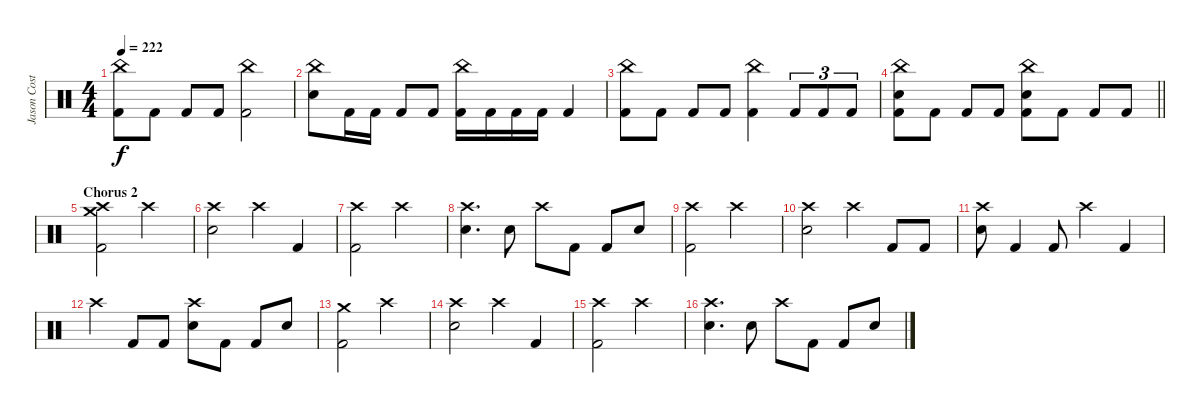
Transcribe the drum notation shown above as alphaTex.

\track ("Jason Costa" "Jason Cost") {instrument percussion}
\staff {score}
\articulation defaults
\ts (4 4)
\tempo 222
\clef neutral
\ks c
("China (hit)" "Kick (hit) 2").8{dy f} "Kick (hit) 2".8 "Kick (hit) 2".8 "Kick (hit) 2".8 ("China (hit)" "Kick (hit) 2").2 |
("China (hit)" "Electric Snare (hit)").8 "Kick (hit) 2".16 "Kick (hit) 2".16 "Kick (hit) 2".8 "Kick (hit) 2".8 ("China (hit)" "Kick (hit) 2").16 "Kick (hit) 2".16 "Kick (hit) 2".16 "Kick (hit) 2".16 "Kick (hit) 2".4 |
("China (hit)" "Kick (hit) 2").8 "Kick (hit) 2".8 "Kick (hit) 2".8 "Kick (hit) 2".8 ("China (hit)" "Kick (hit) 2").4 "Kick (hit) 2".8{tu (3 2)} "Kick (hit) 2".8{tu (3 2)} "Kick (hit) 2".8{tu (3 2)} |
\barLineRight lightlight
("China (hit)" "Electric Snare (hit)" "Kick (hit) 2").8 "Kick (hit) 2".8 "Kick (hit) 2".8 "Kick (hit) 2".8 ("China (hit)" "Electric Snare (hit)" "Kick (hit) 2").8 "Kick (hit) 2".8 "Kick (hit) 2".8 "Kick (hit) 2".8 |
\section ("" "Chorus 2")
("Crash high (hit)" "Crash medium (hit)" "Kick (hit) 2").2 "Crash high (hit)".2 |
("Crash high (hit)" "Electric Snare (hit)").2 "Crash high (hit)".4 "Kick (hit) 2".4 |
("Crash high (hit)" "Kick (hit) 2").2 "Crash high (hit)".2 |
("Crash high (hit)" "Electric Snare (hit)").4{d} "Electric Snare (hit)".8 "Crash high (hit)".8 "Kick (hit) 2".8 "Kick (hit) 2".8 "Electric Snare (hit)".8 |
("Crash high (hit)" "Kick (hit) 2").2 "Crash high (hit)".2 |
("Crash high (hit)" "Electric Snare (hit)").2 "Crash high (hit)".4 "Kick (hit) 2".8 "Kick (hit) 2".8 |
("Crash high (hit)" "Electric Snare (hit)").8 "Kick (hit) 2".4 "Kick (hit) 2".8 "Crash high (hit)".4 "Kick (hit) 2".4 |
"Crash high (hit)".4 "Kick (hit) 2".8 "Kick (hit) 2".8 ("Crash high (hit)" "Electric Snare (hit)").8 "Kick (hit) 2".8 "Kick (hit) 2".8 "Electric Snare (hit)".8 |
("Crash medium (hit)" "Kick (hit) 2").2 "Crash high (hit)".2 |
("Crash high (hit)" "Electric Snare (hit)").2 "Crash high (hit)".4 "Kick (hit) 2".4 |
("Crash high (hit)" "Kick (hit) 2").2 "Crash high (hit)".2 |
("Crash high (hit)" "Electric Snare (hit)").4{d} "Electric Snare (hit)".8 "Crash high (hit)".8 "Kick (hit) 2".8 "Kick (hit) 2".8 "Electric Snare (hit)".8
